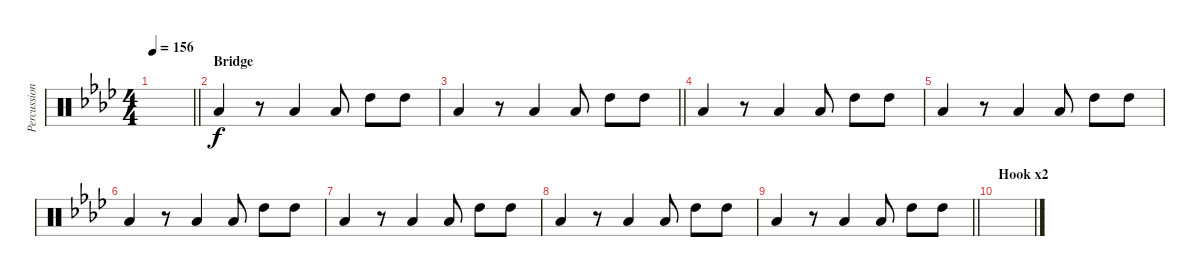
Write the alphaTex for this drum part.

\track ("Percussion " "Percussion") {instrument percussion}
\staff {score}
\articulation defaults
\ts (4 4)
\tempo 156
\clef neutral
\barLineRight lightlight
\ks fminor
|
\section ("" "Bridge")
"Low Tom (hit)".4 r.8 "Low Tom (hit)".4 "Low Tom (hit)".8 "High Tom (hit)".8 "High Tom (hit)".8 |
\barLineRight lightlight "Low Tom (hit)".4
r.8 "Low Tom (hit)".4 "Low Tom (hit)".8 "High Tom (hit)".8 "High Tom (hit)".8 |
"Low Tom (hit)".4 r.8 "Low Tom (hit)".4 "Low Tom (hit)".8 "High Tom (hit)".8 "High Tom (hit)".8 |
"Low Tom (hit)".4 r.8 "Low Tom (hit)".4 "Low Tom (hit)".8 "High Tom (hit)".8 "High Tom (hit)".8 |
"Low Tom (hit)".4 r.8 "Low Tom (hit)".4 "Low Tom (hit)".8 "High Tom (hit)".8 "High Tom (hit)".8 |
"Low Tom (hit)".4 r.8 "Low Tom (hit)".4 "Low Tom (hit)".8 "High Tom (hit)".8 "High Tom (hit)".8 |
"Low Tom (hit)".4 r.8 "Low Tom (hit)".4 "Low Tom (hit)".8 "High Tom (hit)".8 "High Tom (hit)".8 |
\barLineRight lightlight "Low Tom (hit)".4
r.8 "Low Tom (hit)".4 "Low Tom (hit)".8 "High Tom (hit)".8 "High Tom (hit)".8 |
\section ("" "Hook x2")
